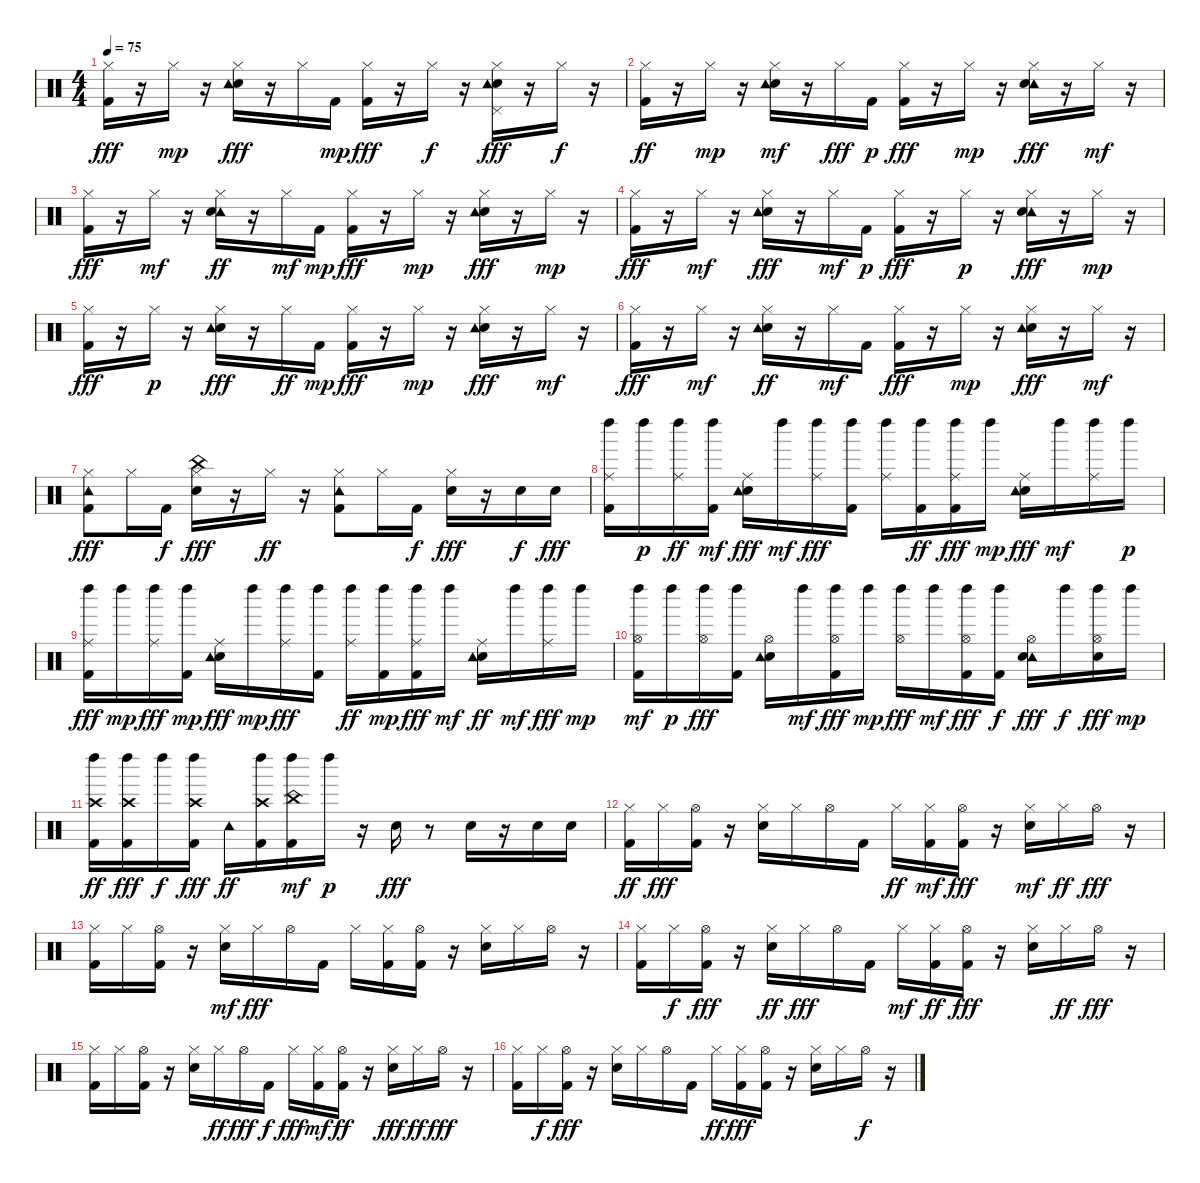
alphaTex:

\track "" {instrument percussion}
\staff {score}
\articulation defaults
\ts (4 4)
\tempo 75
\clef neutral
\ks c
("Hi-Hat (closed)" "Kick (hit) 2").16{dy fff} r.16 "Hi-Hat (closed)".16{dy mp} r.16 ("Hi-Hat (closed)" "Electric Snare (hit)" "Tambourine (hit)").16{dy fff} r.16 "Hi-Hat (closed)".16 "Kick (hit) 2".16{dy mp} ("Kick (hit) 2" "Hi-Hat (closed)").16{dy fff} r.16 "Hi-Hat (closed)".16{dy f} r.16 ("Pedal Hi-Hat (hit)" "Electric Snare (hit)" "Hi-Hat (closed)" "Tambourine (hit)").16{dy fff} r.16 "Hi-Hat (closed)".16{dy f} r.16 |
("Hi-Hat (closed)" "Kick (hit) 2").16{dy ff} r.16 "Hi-Hat (closed)".16{dy mp} r.16 ("Hi-Hat (closed)" "Electric Snare (hit)" "Tambourine (hit)").16{dy mf} r.16 "Hi-Hat (closed)".16{dy fff} "Kick (hit) 2".16{dy p} ("Kick (hit) 2" "Hi-Hat (closed)").16{dy fff} r.16 "Hi-Hat (closed)".16{dy mp} r.16 ("Tambourine (hit)" "Electric Snare (hit)" "Hi-Hat (closed)").16{dy fff} r.16 "Hi-Hat (closed)".16{dy mf} r.16 |
("Hi-Hat (closed)" "Kick (hit) 2").16{dy fff} r.16 "Hi-Hat (closed)".16{dy mf} r.16 ("Tambourine (hit)" "Hi-Hat (closed)" "Electric Snare (hit)").16{dy ff} r.16 "Hi-Hat (closed)".16{dy mf} "Kick (hit) 2".16{dy mp} ("Hi-Hat (closed)" "Kick (hit) 2").16{dy fff} r.16 "Hi-Hat (closed)".16{dy mp} r.16 ("Hi-Hat (closed)" "Electric Snare (hit)" "Tambourine (hit)").16{dy fff} r.16 "Hi-Hat (closed)".16{dy mp} r.16 |
("Kick (hit) 2" "Hi-Hat (closed)").16{dy fff} r.16 "Hi-Hat (closed)".16{dy mf} r.16 ("Hi-Hat (closed)" "Electric Snare (hit)" "Tambourine (hit)").16{dy fff} r.16 "Hi-Hat (closed)".16{dy mf} "Kick (hit) 2".16{dy p} ("Hi-Hat (closed)" "Kick (hit) 2").16{dy fff} r.16 "Hi-Hat (closed)".16{dy p} r.16 ("Tambourine (hit)" "Electric Snare (hit)" "Hi-Hat (closed)").16{dy fff} r.16 "Hi-Hat (closed)".16{dy mp} r.16 |
("Hi-Hat (closed)" "Kick (hit) 2").16{dy fff} r.16 "Hi-Hat (closed)".16{dy p} r.16 ("Electric Snare (hit)" "Hi-Hat (closed)" "Tambourine (hit)").16{dy fff} r.16 "Hi-Hat (closed)".16{dy ff} "Kick (hit) 2".16{dy mp} ("Hi-Hat (closed)" "Kick (hit) 2").16{dy fff} r.16 "Hi-Hat (closed)".16{dy mp} r.16 ("Electric Snare (hit)" "Tambourine (hit)" "Hi-Hat (closed)").16{dy fff} r.16 "Hi-Hat (closed)".16{dy mf} r.16 |
("Hi-Hat (closed)" "Kick (hit) 2").16{dy fff} r.16 "Hi-Hat (closed)".16{dy mf} r.16 ("Hi-Hat (closed)" "Electric Snare (hit)" "Tambourine (hit)").16{dy ff} r.16 "Hi-Hat (closed)".16{dy mf} "Kick (hit) 2".16 ("Hi-Hat (closed)" "Kick (hit) 2").16{dy fff} r.16 "Hi-Hat (closed)".16{dy mp} r.16 ("Electric Snare (hit)" "Hi-Hat (closed)" "Tambourine (hit)").16{dy fff} r.16 "Hi-Hat (closed)".16{dy mf} r.16 |
("Hi-Hat (closed)" "Kick (hit) 2" "Tambourine (hit)").8{dy fff} "Hi-Hat (closed)".16 "Kick (hit) 2".16{dy f} ("Electric Snare (hit)" "China (hit)" "Hi-Hat (closed)").16{dy fff} r.16 "Hi-Hat (closed)".16{dy ff} r.16 ("Tambourine (hit)" "Hi-Hat (closed)" "Kick (hit) 2").8 "Hi-Hat (closed)".16 "Kick (hit) 2".16{dy f} ("Electric Snare (hit)" "Hi-Hat (closed)").16{dy fff} r.16 "Electric Snare (hit)".16{dy f} "Electric Snare (hit)".16{dy fff} |
("Kick (hit) 2" "Ride (middle)" "Left Maraca (hit)").16 "Left Maraca (hit)".16{dy p} ("Ride (middle)" "Left Maraca (hit)").16{dy ff} ("Kick (hit) 2" "Left Maraca (hit)").16{dy mf} ("Electric Snare (hit)" "Tambourine (hit)" "Ride (middle)").16{dy fff} "Left Maraca (hit)".16{dy mf} ("Left Maraca (hit)" "Ride (middle)").16{dy fff} ("Left Maraca (hit)" "Kick (hit) 2").16 ("Left Maraca (hit)" "Ride (middle)").16 ("Left Maraca (hit)" "Kick (hit) 2").16{dy ff} ("Kick (hit) 2" "Ride (middle)" "Left Maraca (hit)").16{dy fff} "Left Maraca (hit)".16{dy mp} ("Electric Snare (hit)" "Tambourine (hit)" "Ride (middle)").16{dy fff} "Left Maraca (hit)".16{dy mf} ("Ride (middle)" "Left Maraca (hit)").16 "Left Maraca (hit)".16{dy p} |
("Kick (hit) 2" "Left Maraca (hit)" "Ride (middle)").16{dy fff} "Left Maraca (hit)".16{dy mp} ("Left Maraca (hit)" "Ride (middle)").16{dy fff} ("Left Maraca (hit)" "Kick (hit) 2").16{dy mp} ("Electric Snare (hit)" "Tambourine (hit)" "Ride (middle)").16{dy fff} "Left Maraca (hit)".16{dy mp} ("Left Maraca (hit)" "Ride (middle)").16{dy fff} ("Left Maraca (hit)" "Kick (hit) 2").16 ("Left Maraca (hit)" "Ride (middle)").16{dy ff} ("Kick (hit) 2" "Left Maraca (hit)").16{dy mp} ("Left Maraca (hit)" "Kick (hit) 2" "Ride (middle)").16{dy fff} "Left Maraca (hit)".16{dy mf} ("Electric Snare (hit)" "Tambourine (hit)" "Ride (middle)").16{dy ff} "Left Maraca (hit)".16{dy mf} ("Left Maraca (hit)" "Ride (middle)").16{dy fff} "Left Maraca (hit)".16{dy mp} |
("Hi-Hat (open)" "Kick (hit) 2" "Left Maraca (hit)").16{dy mf} "Left Maraca (hit)".16{dy p} ("Left Maraca (hit)" "Hi-Hat (open)").16{dy fff} ("Left Maraca (hit)" "Kick (hit) 2").16 ("Electric Snare (hit)" "Tambourine (hit)" "Hi-Hat (open)").16 "Left Maraca (hit)".16{dy mf} ("Hi-Hat (open)" "Kick (hit) 2" "Left Maraca (hit)").16{dy fff} "Left Maraca (hit)".16{dy mp} ("Hi-Hat (open)" "Left Maraca (hit)").16{dy fff} "Left Maraca (hit)".16{dy mf} ("Hi-Hat (open)" "Kick (hit) 2" "Left Maraca (hit)").16{dy fff} ("Left Maraca (hit)" "Kick (hit) 2").16{dy f} ("Tambourine (hit)" "Hi-Hat (open)" "Electric Snare (hit)").16{dy fff} "Left Maraca (hit)".16{dy f} ("Left Maraca (hit)" "Electric Snare (hit)" "Hi-Hat (open)").16{dy fff} "Left Maraca (hit)".16{dy mp} |
("Crash high (hit)" "Kick (hit) 2" "Left Maraca (hit)").16{dy ff} ("Crash high (hit)" "Left Maraca (hit)" "Kick (hit) 2").16{dy fff} "Left Maraca (hit)".16{dy f} ("Crash high (hit)" "Left Maraca (hit)" "Kick (hit) 2").16{dy fff} "Tambourine (hit)".16{dy ff} ("Left Maraca (hit)" "Crash high (hit)" "Kick (hit) 2").16 ("China (hit)" "Kick (hit) 2" "Left Maraca (hit)").16{dy mf} "Left Maraca (hit)".16{dy p} r.16 "Electric Snare (hit)".16{dy fff} r.8 "Electric Snare (hit)".16 r.16 "Electric Snare (hit)".16 "Electric Snare (hit)".16 |
("Hi-Hat (closed)" "Kick (hit) 2").16{dy ff} "Hi-Hat (closed)".16{dy fff} ("Kick (hit) 2" "Hi-Hat (open)").16 r.16 ("Hi-Hat (closed)" "Electric Snare (hit)").16 "Hi-Hat (closed)".16 "Hi-Hat (open)".16 "Kick (hit) 2".16 "Hi-Hat (closed)".16{dy ff} ("Hi-Hat (closed)" "Kick (hit) 2").16{dy mf} ("Hi-Hat (open)" "Kick (hit) 2").16{dy fff} r.16 ("Electric Snare (hit)" "Hi-Hat (closed)").16{dy mf} "Hi-Hat (closed)".16{dy ff} "Hi-Hat (open)".16{dy fff} r.16 |
("Hi-Hat (closed)" "Kick (hit) 2").16 "Hi-Hat (closed)".16 ("Kick (hit) 2" "Hi-Hat (open)").16 r.16 ("Electric Snare (hit)" "Hi-Hat (closed)").16{dy mf} "Hi-Hat (closed)".16{dy fff} "Hi-Hat (open)".16 "Kick (hit) 2".16 "Hi-Hat (closed)".16 ("Kick (hit) 2" "Hi-Hat (closed)").16 ("Kick (hit) 2" "Hi-Hat (open)").16 r.16 ("Electric Snare (hit)" "Hi-Hat (closed)").16 "Hi-Hat (closed)".16 "Hi-Hat (open)".16 r.16 |
("Hi-Hat (closed)" "Kick (hit) 2").16 "Hi-Hat (closed)".16{dy f} ("Hi-Hat (open)" "Kick (hit) 2").16{dy fff} r.16 ("Electric Snare (hit)" "Hi-Hat (closed)").16{dy ff} "Hi-Hat (closed)".16{dy fff} "Hi-Hat (open)".16 "Kick (hit) 2".16 "Hi-Hat (closed)".16{dy mf} ("Hi-Hat (closed)" "Kick (hit) 2").16{dy ff} ("Kick (hit) 2" "Hi-Hat (open)").16{dy fff} r.16 ("Hi-Hat (closed)" "Electric Snare (hit)").16 "Hi-Hat (closed)".16{dy ff} "Hi-Hat (open)".16{dy fff} r.16 |
("Hi-Hat (closed)" "Kick (hit) 2").16 "Hi-Hat (closed)".16 ("Kick (hit) 2" "Hi-Hat (open)").16 r.16 ("Hi-Hat (closed)" "Electric Snare (hit)").16 "Hi-Hat (closed)".16{dy ff} "Hi-Hat (open)".16{dy fff} "Kick (hit) 2".16{dy f} "Hi-Hat (closed)".16{dy fff} ("Hi-Hat (closed)" "Kick (hit) 2").16{dy mf} ("Hi-Hat (open)" "Kick (hit) 2").16{dy ff} r.16 ("Electric Snare (hit)" "Hi-Hat (closed)").16{dy fff} "Hi-Hat (closed)".16{dy ff} "Hi-Hat (open)".16{dy fff} r.16 |
("Kick (hit) 2" "Hi-Hat (closed)").16 "Hi-Hat (closed)".16{dy f} ("Hi-Hat (open)" "Kick (hit) 2").16{dy fff} r.16 ("Hi-Hat (closed)" "Electric Snare (hit)").16 "Hi-Hat (closed)".16 "Hi-Hat (open)".16 "Kick (hit) 2".16 "Hi-Hat (closed)".16{dy ff} ("Hi-Hat (closed)" "Kick (hit) 2").16{dy fff} ("Hi-Hat (open)" "Kick (hit) 2").16 r.16 ("Hi-Hat (closed)" "Electric Snare (hit)").16 "Hi-Hat (closed)".16 "Hi-Hat (open)".16{dy f} r.16
